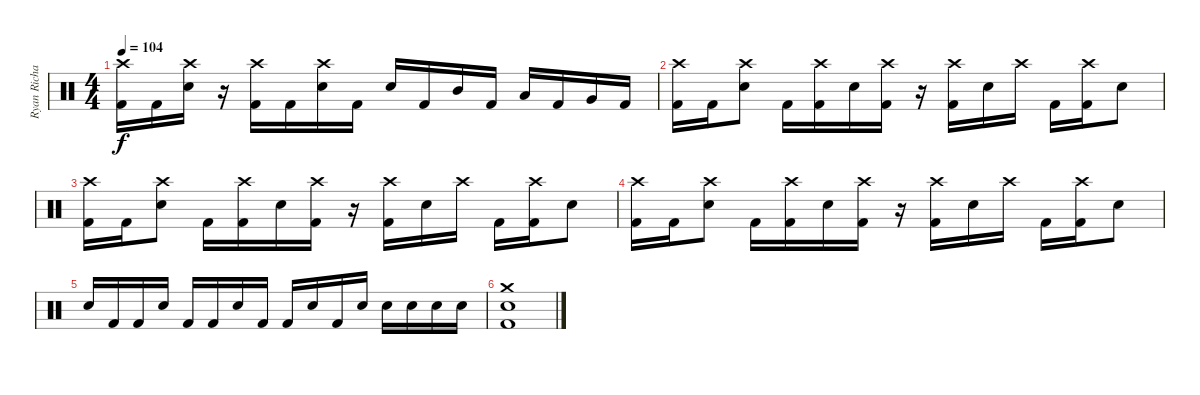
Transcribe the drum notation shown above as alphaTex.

\track ("Ryan Richards" "Ryan Richa") {instrument percussion}
\staff {score}
\articulation defaults
\ts (4 4)
\tempo 104
\clef neutral
\ks c
("Crash high (hit)" "Kick (hit) 2").16{dy f} "Kick (hit) 2".16 ("Crash high (hit)" "Snare (hit) 2").16 r.16 ("Crash high (hit)" "Kick (hit) 2").16 "Kick (hit) 2".16 ("Crash high (hit)" "Snare (hit) 2").16 "Kick (hit) 2".16 "Snare (hit) 2".16 "Kick (hit) 2".16 "Mid Tom (hit)".16 "Kick (hit) 2".16 "Low Tom (hit)".16 "Kick (hit) 2".16 "Very Low Tom (hit)".16 "Kick (hit) 2".16 |
("Crash high (hit)" "Kick (hit) 2").16 "Kick (hit) 2".16 ("Crash high (hit)" "Snare (hit) 2").8 "Kick (hit) 2".16 ("Crash high (hit)" "Kick (hit) 2").16 "Snare (hit) 2".16 ("Crash high (hit)" "Kick (hit) 2").16 r.16 ("Crash high (hit)" "Kick (hit) 2").16 "Snare (hit) 2".16 "Crash high (hit)".16 "Kick (hit) 2".16 ("Crash high (hit)" "Kick (hit) 2").16 "Snare (hit) 2".8 |
("Crash high (hit)" "Kick (hit) 2").16 "Kick (hit) 2".16 ("Crash high (hit)" "Snare (hit) 2").8 "Kick (hit) 2".16 ("Crash high (hit)" "Kick (hit) 2").16 "Snare (hit) 2".16 ("Crash high (hit)" "Kick (hit) 2").16 r.16 ("Crash high (hit)" "Kick (hit) 2").16 "Snare (hit) 2".16 "Crash high (hit)".16 "Kick (hit) 2".16 ("Crash high (hit)" "Kick (hit) 2").16 "Snare (hit) 2".8 |
("Crash high (hit)" "Kick (hit) 2").16 "Kick (hit) 2".16 ("Crash high (hit)" "Snare (hit) 2").8 "Kick (hit) 2".16 ("Crash high (hit)" "Kick (hit) 2").16 "Snare (hit) 2".16 ("Crash high (hit)" "Kick (hit) 2").16 r.16 ("Crash high (hit)" "Kick (hit) 2").16 "Snare (hit) 2".16 "Crash high (hit)".16 "Kick (hit) 2".16 ("Crash high (hit)" "Kick (hit) 2").16 "Snare (hit) 2".8 |
"Snare (hit) 2".16 "Kick (hit) 2".16 "Kick (hit) 2".16 "Snare (hit) 2".16 "Kick (hit) 2".16 "Kick (hit) 2".16 "Snare (hit) 2".16 "Kick (hit) 2".16 "Kick (hit) 2".16 "Snare (hit) 2".16 "Kick (hit) 2".16 "Snare (hit) 2".16 "Snare (hit) 2".16 "Snare (hit) 2".16 "Snare (hit) 2".16 "Snare (hit) 2".16 |
("Crash medium (hit)" "Snare (hit) 2" "Kick (hit) 2").1
